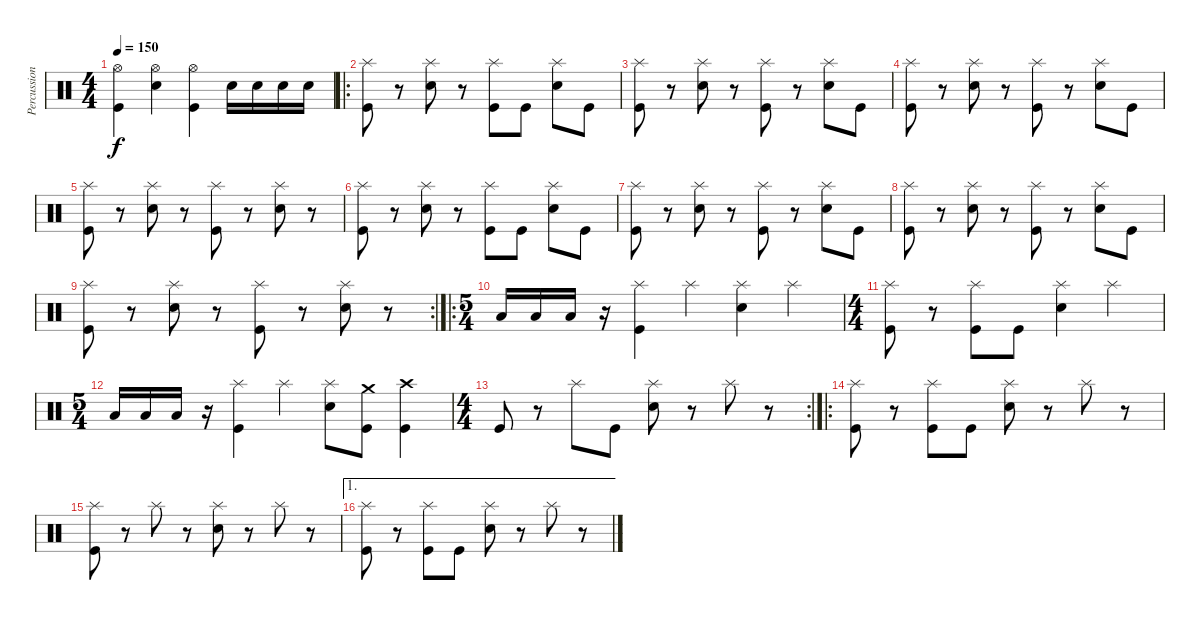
\track ("Percussions" "Percussion") {instrument percussion}
\staff {score}
\articulation defaults
\ts (4 4)
\tempo 150
\clef neutral
\ks c
("Kick (hit)" "Hi-Hat (open)").4{dy f} ("Electric Snare (hit)" "Hi-Hat (open)").4 ("Kick (hit)" "Hi-Hat (open)").4 "Electric Snare (hit)".16 "Electric Snare (hit)".16 "Electric Snare (hit)".16 "Electric Snare (hit)".16 |
\ro
("Kick (hit)" "Splash (hit)").8 r.8 ("Electric Snare (hit)" "Splash (hit)").8 r.8 ("Kick (hit)" "Splash (hit)").8 "Kick (hit)".8 ("Electric Snare (hit)" "Splash (hit)").8 "Kick (hit)".8 |
("Kick (hit)" "Splash (hit)").8 r.8 ("Electric Snare (hit)" "Splash (hit)").8 r.8 ("Kick (hit)" "Splash (hit)").8 r.8 ("Electric Snare (hit)" "Splash (hit)").8 "Kick (hit)".8 |
("Kick (hit)" "Splash (hit)").8 r.8 ("Electric Snare (hit)" "Splash (hit)").8 r.8 ("Kick (hit)" "Splash (hit)").8 r.8 ("Electric Snare (hit)" "Splash (hit)").8 "Kick (hit)".8 |
("Kick (hit)" "Splash (hit)").8 r.8 ("Electric Snare (hit)" "Splash (hit)").8 r.8 ("Kick (hit)" "Splash (hit)").8 r.8 ("Electric Snare (hit)" "Splash (hit)").8 r.8 |
("Kick (hit)" "Splash (hit)").8 r.8 ("Electric Snare (hit)" "Splash (hit)").8 r.8 ("Kick (hit)" "Splash (hit)").8 "Kick (hit)".8 ("Electric Snare (hit)" "Splash (hit)").8 "Kick (hit)".8 |
("Kick (hit)" "Splash (hit)").8 r.8 ("Electric Snare (hit)" "Splash (hit)").8 r.8 ("Kick (hit)" "Splash (hit)").8 r.8 ("Electric Snare (hit)" "Splash (hit)").8 "Kick (hit)".8 |
("Kick (hit)" "Splash (hit)").8 r.8 ("Electric Snare (hit)" "Splash (hit)").8 r.8 ("Kick (hit)" "Splash (hit)").8 r.8 ("Electric Snare (hit)" "Splash (hit)").8 "Kick (hit)".8 |
\rc 2
("Kick (hit)" "Splash (hit)").8 r.8 ("Electric Snare (hit)" "Splash (hit)").8 r.8 ("Kick (hit)" "Splash (hit)").8 r.8 ("Electric Snare (hit)" "Splash (hit)").8 r.8 |
\ro
\ts (5 4)
"Low Floor Tom (hit)".16 "Low Floor Tom (hit)".16 "Low Floor Tom (hit)".16 r.16 ("Kick (hit)" "Splash (hit)").4 "Splash (hit)".4 ("Electric Snare (hit)" "Splash (hit)").4 "Splash (hit)".4 |
\ts (4 4)
("Kick (hit)" "Splash (hit)").8 r.8 ("Kick (hit)" "Splash (hit)").8 "Kick (hit)".8 ("Electric Snare (hit)" "Splash (hit)").4 "Splash (hit)".4 |
\ts (5 4)
"Low Floor Tom (hit)".16 "Low Floor Tom (hit)".16 "Low Floor Tom (hit)".16 r.16 ("Kick (hit)" "Splash (hit)").4 "Splash (hit)".4 ("Electric Snare (hit)" "Splash (hit)").8 ("Kick (hit)" "Crash medium (hit)").8 ("Kick (hit)" "Crash high (hit)").4 |
\rc 2
\ts (4 4)
"Kick (hit)".8 r.8 "Splash (hit)".8 "Kick (hit)".8 ("Electric Snare (hit)" "Splash (hit)").8 r.8 "Splash (hit)".8 r.8 |
\ro
("Kick (hit)" "Splash (hit)").8 r.8 ("Kick (hit)" "Splash (hit)").8 "Kick (hit)".8 ("Electric Snare (hit)" "Splash (hit)").8 r.8 "Splash (hit)".8 r.8 |
("Kick (hit)" "Splash (hit)").8 r.8 "Splash (hit)".8 r.8 ("Electric Snare (hit)" "Splash (hit)").8 r.8 "Splash (hit)".8 r.8 |
\ae 1
("Kick (hit)" "Splash (hit)").8 r.8 ("Kick (hit)" "Splash (hit)").8 "Kick (hit)".8 ("Electric Snare (hit)" "Splash (hit)").8 r.8 "Splash (hit)".8 r.8
